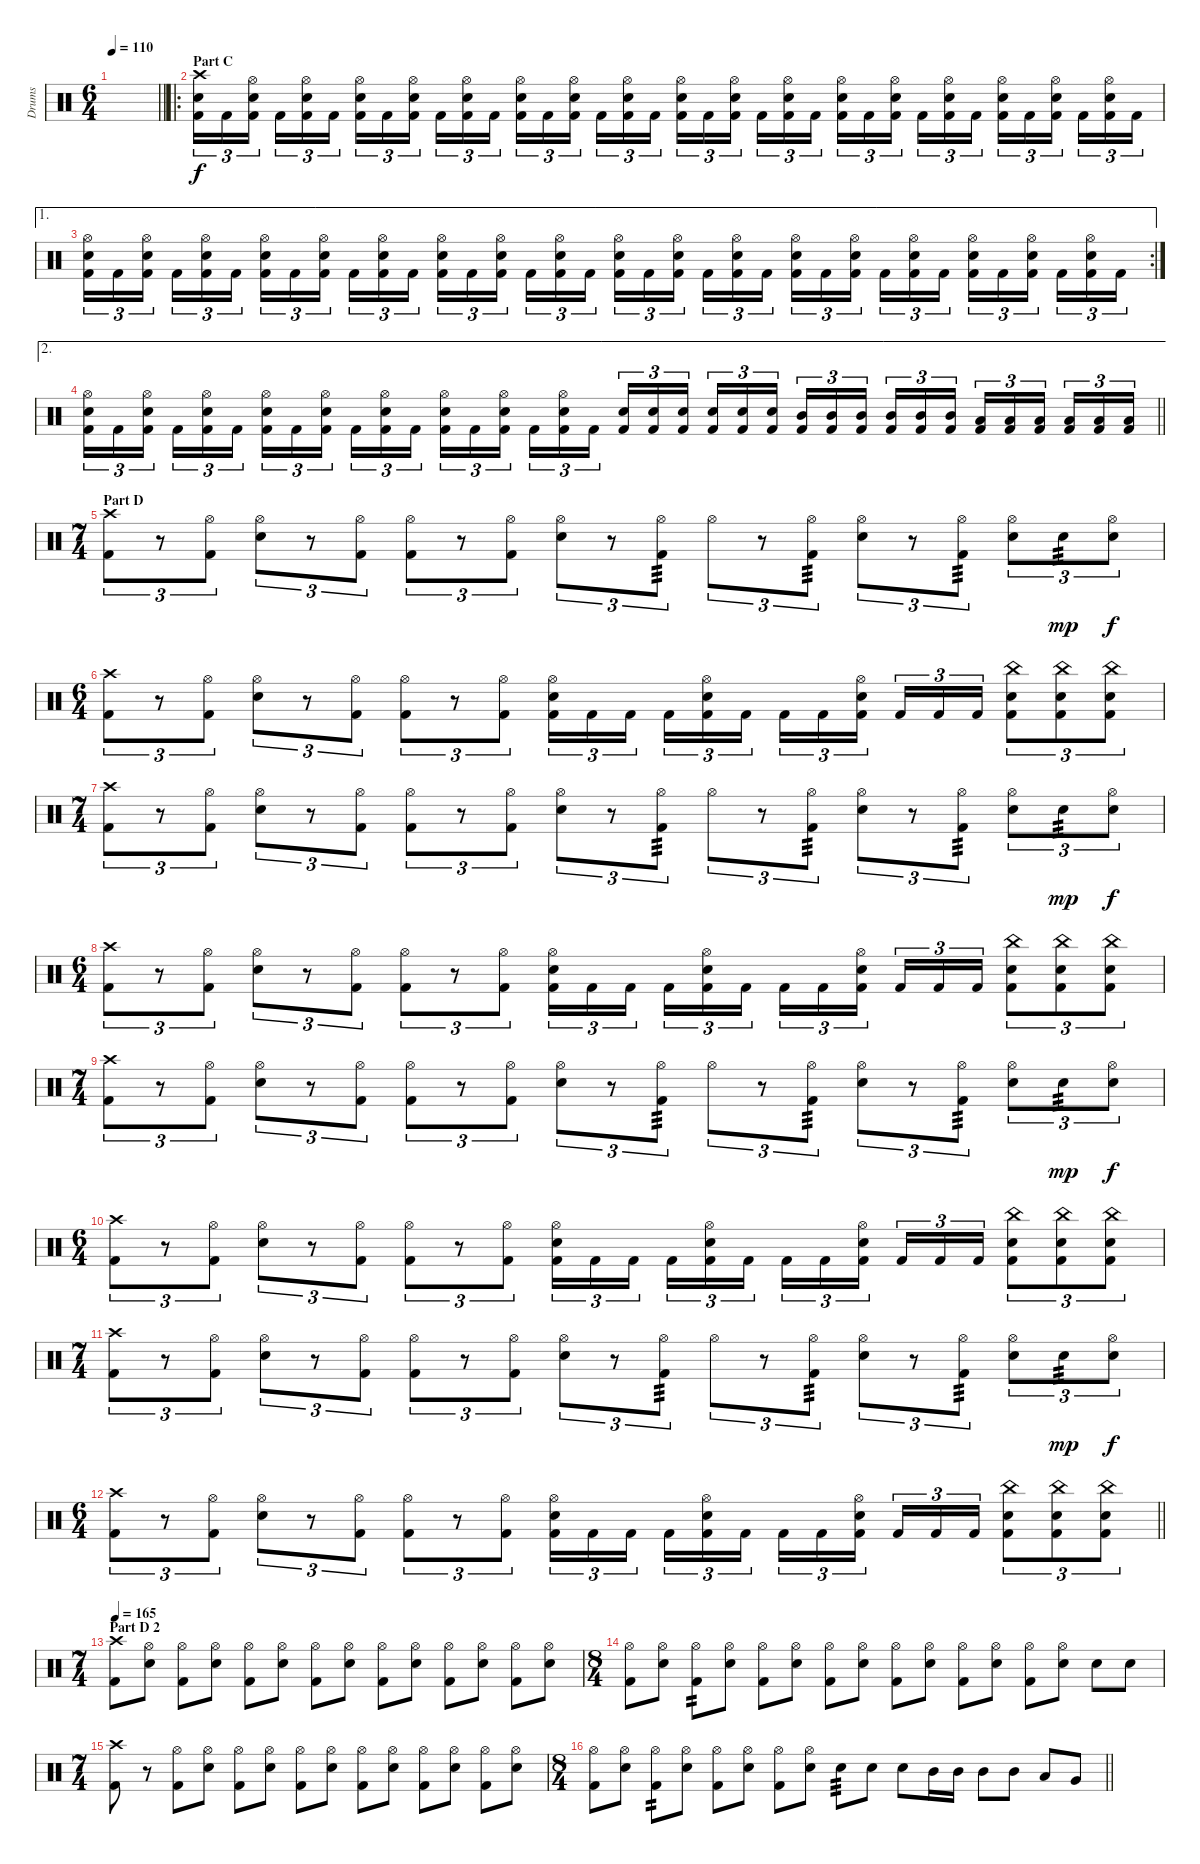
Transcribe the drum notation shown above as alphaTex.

\track ("Drums" "Drums") {instrument percussion}
\staff {score}
\articulation defaults
\ts (6 4)
\tempo 110
\clef neutral
\barLineRight lightlight
\ks c
|
\ro
\section ("" "Part C")
("Snare (hit) 2" "Kick (hit) 2" "Crash high (hit)").16{tu (3 2)} "Kick (hit) 2".16{tu (3 2)} ("Kick (hit) 2" "Snare (hit) 2" "Hi-Hat (open)").16{tu (3 2) beam splitsecondary} "Kick (hit) 2".16{tu (3 2)} ("Kick (hit) 2" "Snare (hit) 2" "Hi-Hat (open)").16{tu (3 2)} "Kick (hit) 2".16{tu (3 2) beam splitsecondary} ("Kick (hit) 2" "Snare (hit) 2" "Hi-Hat (open)").16{tu (3 2)} "Kick (hit) 2".16{tu (3 2)} ("Kick (hit) 2" "Snare (hit) 2" "Hi-Hat (open)").16{tu (3 2) beam splitsecondary} "Kick (hit) 2".16{tu (3 2)} ("Kick (hit) 2" "Snare (hit) 2" "Hi-Hat (open)").16{tu (3 2)} "Kick (hit) 2".16{tu (3 2) beam splitsecondary} ("Snare (hit) 2" "Kick (hit) 2" "Hi-Hat (open)").16{tu (3 2)} "Kick (hit) 2".16{tu (3 2)} ("Kick (hit) 2" "Snare (hit) 2" "Hi-Hat (open)").16{tu (3 2) beam splitsecondary} "Kick (hit) 2".16{tu (3 2)} ("Kick (hit) 2" "Snare (hit) 2" "Hi-Hat (open)").16{tu (3 2)} "Kick (hit) 2".16{tu (3 2)} ("Snare (hit) 2" "Kick (hit) 2" "Hi-Hat (open)").16{tu (3 2)} "Kick (hit) 2".16{tu (3 2)} ("Kick (hit) 2" "Snare (hit) 2" "Hi-Hat (open)").16{tu (3 2) beam splitsecondary} "Kick (hit) 2".16{tu (3 2)} ("Kick (hit) 2" "Snare (hit) 2" "Hi-Hat (open)").16{tu (3 2)} "Kick (hit) 2".16{tu (3 2) beam splitsecondary} ("Kick (hit) 2" "Snare (hit) 2" "Hi-Hat (open)").16{tu (3 2)} "Kick (hit) 2".16{tu (3 2)} ("Kick (hit) 2" "Snare (hit) 2" "Hi-Hat (open)").16{tu (3 2) beam splitsecondary} "Kick (hit) 2".16{tu (3 2)} ("Kick (hit) 2" "Snare (hit) 2" "Hi-Hat (open)").16{tu (3 2)} "Kick (hit) 2".16{tu (3 2) beam splitsecondary} ("Kick (hit) 2" "Snare (hit) 2" "Hi-Hat (open)").16{tu (3 2)} "Kick (hit) 2".16{tu (3 2)} ("Kick (hit) 2" "Snare (hit) 2" "Hi-Hat (open)").16{tu (3 2) beam splitsecondary} "Kick (hit) 2".16{tu (3 2)} ("Kick (hit) 2" "Snare (hit) 2" "Hi-Hat (open)").16{tu (3 2)} "Kick (hit) 2".16{tu (3 2)} |
\ae 1
\rc 2
("Snare (hit) 2" "Kick (hit) 2" "Hi-Hat (open)").16{tu (3 2)} "Kick (hit) 2".16{tu (3 2)} ("Kick (hit) 2" "Snare (hit) 2" "Hi-Hat (open)").16{tu (3 2) beam splitsecondary} "Kick (hit) 2".16{tu (3 2)} ("Kick (hit) 2" "Snare (hit) 2" "Hi-Hat (open)").16{tu (3 2)} "Kick (hit) 2".16{tu (3 2) beam splitsecondary} ("Kick (hit) 2" "Snare (hit) 2" "Hi-Hat (open)").16{tu (3 2)} "Kick (hit) 2".16{tu (3 2)} ("Kick (hit) 2" "Snare (hit) 2" "Hi-Hat (open)").16{tu (3 2) beam splitsecondary} "Kick (hit) 2".16{tu (3 2)} ("Kick (hit) 2" "Snare (hit) 2" "Hi-Hat (open)").16{tu (3 2)} "Kick (hit) 2".16{tu (3 2) beam splitsecondary} ("Snare (hit) 2" "Kick (hit) 2" "Hi-Hat (open)").16{tu (3 2)} "Kick (hit) 2".16{tu (3 2)} ("Kick (hit) 2" "Snare (hit) 2" "Hi-Hat (open)").16{tu (3 2) beam splitsecondary} "Kick (hit) 2".16{tu (3 2)} ("Kick (hit) 2" "Snare (hit) 2" "Hi-Hat (open)").16{tu (3 2)} "Kick (hit) 2".16{tu (3 2)} ("Snare (hit) 2" "Kick (hit) 2" "Hi-Hat (open)").16{tu (3 2)} "Kick (hit) 2".16{tu (3 2)} ("Kick (hit) 2" "Snare (hit) 2" "Hi-Hat (open)").16{tu (3 2) beam splitsecondary} "Kick (hit) 2".16{tu (3 2)} ("Kick (hit) 2" "Snare (hit) 2" "Hi-Hat (open)").16{tu (3 2)} "Kick (hit) 2".16{tu (3 2) beam splitsecondary} ("Kick (hit) 2" "Snare (hit) 2" "Hi-Hat (open)").16{tu (3 2)} "Kick (hit) 2".16{tu (3 2)} ("Kick (hit) 2" "Snare (hit) 2" "Hi-Hat (open)").16{tu (3 2) beam splitsecondary} "Kick (hit) 2".16{tu (3 2)} ("Kick (hit) 2" "Snare (hit) 2" "Hi-Hat (open)").16{tu (3 2)} "Kick (hit) 2".16{tu (3 2) beam splitsecondary} ("Kick (hit) 2" "Snare (hit) 2" "Hi-Hat (open)").16{tu (3 2)} "Kick (hit) 2".16{tu (3 2)} ("Kick (hit) 2" "Snare (hit) 2" "Hi-Hat (open)").16{tu (3 2) beam splitsecondary} "Kick (hit) 2".16{tu (3 2)} ("Kick (hit) 2" "Snare (hit) 2" "Hi-Hat (open)").16{tu (3 2)} "Kick (hit) 2".16{tu (3 2)} |
\ae 2
\barLineRight lightlight
("Snare (hit) 2" "Kick (hit) 2" "Hi-Hat (open)").16{tu (3 2)} "Kick (hit) 2".16{tu (3 2)} ("Kick (hit) 2" "Snare (hit) 2" "Hi-Hat (open)").16{tu (3 2) beam splitsecondary} "Kick (hit) 2".16{tu (3 2)} ("Kick (hit) 2" "Snare (hit) 2" "Hi-Hat (open)").16{tu (3 2)} "Kick (hit) 2".16{tu (3 2) beam splitsecondary} ("Kick (hit) 2" "Snare (hit) 2" "Hi-Hat (open)").16{tu (3 2)} "Kick (hit) 2".16{tu (3 2)} ("Kick (hit) 2" "Snare (hit) 2" "Hi-Hat (open)").16{tu (3 2) beam splitsecondary} "Kick (hit) 2".16{tu (3 2)} ("Kick (hit) 2" "Snare (hit) 2" "Hi-Hat (open)").16{tu (3 2)} "Kick (hit) 2".16{tu (3 2) beam splitsecondary} ("Snare (hit) 2" "Kick (hit) 2" "Hi-Hat (open)").16{tu (3 2)} "Kick (hit) 2".16{tu (3 2)} ("Kick (hit) 2" "Snare (hit) 2" "Hi-Hat (open)").16{tu (3 2) beam splitsecondary} "Kick (hit) 2".16{tu (3 2)} ("Kick (hit) 2" "Snare (hit) 2" "Hi-Hat (open)").16{tu (3 2)} "Kick (hit) 2".16{tu (3 2)} ("Snare (hit) 2" "Kick (hit) 2").16{tu (3 2)} ("Kick (hit) 2" "Snare (hit) 2").16{tu (3 2)} ("Kick (hit) 2" "Snare (hit) 2").16{tu (3 2) beam splitsecondary} ("Kick (hit) 2" "Snare (hit) 2").16{tu (3 2)} ("Kick (hit) 2" "Snare (hit) 2").16{tu (3 2)} ("Kick (hit) 2" "Snare (hit) 2").16{tu (3 2) beam splitsecondary} ("Kick (hit) 2" "Mid Tom (hit)").16{tu (3 2)} ("Kick (hit) 2" "Mid Tom (hit)").16{tu (3 2)} ("Kick (hit) 2" "Mid Tom (hit)").16{tu (3 2) beam splitsecondary} ("Kick (hit) 2" "Mid Tom (hit)").16{tu (3 2)} ("Kick (hit) 2" "Mid Tom (hit)").16{tu (3 2)} ("Kick (hit) 2" "Mid Tom (hit)").16{tu (3 2) beam splitsecondary} ("Kick (hit) 2" "Low Tom (hit)").16{tu (3 2)} ("Kick (hit) 2" "Low Tom (hit)").16{tu (3 2)} ("Kick (hit) 2" "Low Tom (hit)").16{tu (3 2) beam splitsecondary} ("Kick (hit) 2" "Low Tom (hit)").16{tu (3 2)} ("Kick (hit) 2" "Low Tom (hit)").16{tu (3 2)} ("Kick (hit) 2" "Low Tom (hit)").16{tu (3 2)} |
\ts (7 4)
\section ("" "Part D")
("Kick (hit) 2" "Crash high (hit)").8{tu (3 2)} r.8{tu (3 2)} ("Hi-Hat (open)" "Kick (hit) 2").8{tu (3 2)} ("Hi-Hat (open)" "Snare (hit) 2").8{tu (3 2)} r.8{tu (3 2)} ("Hi-Hat (open)" "Kick (hit) 2").8{tu (3 2)} ("Hi-Hat (open)" "Kick (hit) 2").8{tu (3 2)} r.8{tu (3 2)} ("Hi-Hat (open)" "Kick (hit) 2").8{tu (3 2)} ("Hi-Hat (open)" "Snare (hit) 2").8{tu (3 2)} r.8{tu (3 2)} ("Kick (hit) 2" "Hi-Hat (open)").8{tu (3 2) tp 3} "Hi-Hat (open)".8{tu (3 2)} r.8{tu (3 2)} ("Kick (hit) 2" "Hi-Hat (open)").8{tu (3 2) tp 3} ("Hi-Hat (open)" "Snare (hit) 2").8{tu (3 2)} r.8{tu (3 2)} ("Kick (hit) 2" "Hi-Hat (open)").8{tu (3 2) tp 3} ("Snare (hit) 2" "Hi-Hat (open)").8{tu (3 2)} "Snare (hit) 2".8{tu (3 2) tp 3 dy mp} ("Snare (hit) 2" "Hi-Hat (open)").8{tu (3 2) dy f} |
\ts (6 4)
("Kick (hit) 2" "Crash high (hit)").8{tu (3 2)} r.8{tu (3 2)} ("Hi-Hat (open)" "Kick (hit) 2").8{tu (3 2)} ("Hi-Hat (open)" "Snare (hit) 2").8{tu (3 2)} r.8{tu (3 2)} ("Hi-Hat (open)" "Kick (hit) 2").8{tu (3 2)} ("Hi-Hat (open)" "Kick (hit) 2").8{tu (3 2)} r.8{tu (3 2)} ("Hi-Hat (open)" "Kick (hit) 2").8{tu (3 2)} ("Hi-Hat (open)" "Snare (hit) 2" "Kick (hit) 2").16{tu (3 2)} "Kick (hit) 2".16{tu (3 2)} "Kick (hit) 2".16{tu (3 2) beam splitsecondary} "Kick (hit) 2".16{tu (3 2)} ("Kick (hit) 2" "Snare (hit) 2" "Hi-Hat (open)").16{tu (3 2)} "Kick (hit) 2".16{tu (3 2) beam splitsecondary} "Kick (hit) 2".16{tu (3 2)} "Kick (hit) 2".16{tu (3 2)} ("Kick (hit) 2" "Snare (hit) 2" "Hi-Hat (open)").16{tu (3 2) beam splitsecondary} "Kick (hit) 2".16{tu (3 2)} "Kick (hit) 2".16{tu (3 2)} "Kick (hit) 2".16{tu (3 2)} ("Kick (hit) 2" "Snare (hit) 2" "China (hit)").8{tu (3 2)} ("Kick (hit) 2" "Snare (hit) 2" "China (hit)").8{tu (3 2)} ("Snare (hit) 2" "Kick (hit) 2" "China (hit)").8{tu (3 2)} |
\ts (7 4)
("Kick (hit) 2" "Crash high (hit)").8{tu (3 2)} r.8{tu (3 2)} ("Hi-Hat (open)" "Kick (hit) 2").8{tu (3 2)} ("Hi-Hat (open)" "Snare (hit) 2").8{tu (3 2)} r.8{tu (3 2)} ("Hi-Hat (open)" "Kick (hit) 2").8{tu (3 2)} ("Hi-Hat (open)" "Kick (hit) 2").8{tu (3 2)} r.8{tu (3 2)} ("Hi-Hat (open)" "Kick (hit) 2").8{tu (3 2)} ("Hi-Hat (open)" "Snare (hit) 2").8{tu (3 2)} r.8{tu (3 2)} ("Kick (hit) 2" "Hi-Hat (open)").8{tu (3 2) tp 3} "Hi-Hat (open)".8{tu (3 2)} r.8{tu (3 2)} ("Kick (hit) 2" "Hi-Hat (open)").8{tu (3 2) tp 3} ("Hi-Hat (open)" "Snare (hit) 2").8{tu (3 2)} r.8{tu (3 2)} ("Kick (hit) 2" "Hi-Hat (open)").8{tu (3 2) tp 3} ("Snare (hit) 2" "Hi-Hat (open)").8{tu (3 2)} "Snare (hit) 2".8{tu (3 2) tp 3 dy mp} ("Snare (hit) 2" "Hi-Hat (open)").8{tu (3 2) dy f} |
\ts (6 4)
("Kick (hit) 2" "Crash high (hit)").8{tu (3 2)} r.8{tu (3 2)} ("Hi-Hat (open)" "Kick (hit) 2").8{tu (3 2)} ("Hi-Hat (open)" "Snare (hit) 2").8{tu (3 2)} r.8{tu (3 2)} ("Hi-Hat (open)" "Kick (hit) 2").8{tu (3 2)} ("Hi-Hat (open)" "Kick (hit) 2").8{tu (3 2)} r.8{tu (3 2)} ("Hi-Hat (open)" "Kick (hit) 2").8{tu (3 2)} ("Hi-Hat (open)" "Snare (hit) 2" "Kick (hit) 2").16{tu (3 2)} "Kick (hit) 2".16{tu (3 2)} "Kick (hit) 2".16{tu (3 2) beam splitsecondary} "Kick (hit) 2".16{tu (3 2)} ("Kick (hit) 2" "Snare (hit) 2" "Hi-Hat (open)").16{tu (3 2)} "Kick (hit) 2".16{tu (3 2) beam splitsecondary} "Kick (hit) 2".16{tu (3 2)} "Kick (hit) 2".16{tu (3 2)} ("Kick (hit) 2" "Snare (hit) 2" "Hi-Hat (open)").16{tu (3 2) beam splitsecondary} "Kick (hit) 2".16{tu (3 2)} "Kick (hit) 2".16{tu (3 2)} "Kick (hit) 2".16{tu (3 2)} ("Kick (hit) 2" "Snare (hit) 2" "China (hit)").8{tu (3 2)} ("Kick (hit) 2" "Snare (hit) 2" "China (hit)").8{tu (3 2)} ("Snare (hit) 2" "Kick (hit) 2" "China (hit)").8{tu (3 2)} |
\ts (7 4)
("Kick (hit) 2" "Crash high (hit)").8{tu (3 2)} r.8{tu (3 2)} ("Hi-Hat (open)" "Kick (hit) 2").8{tu (3 2)} ("Hi-Hat (open)" "Snare (hit) 2").8{tu (3 2)} r.8{tu (3 2)} ("Hi-Hat (open)" "Kick (hit) 2").8{tu (3 2)} ("Hi-Hat (open)" "Kick (hit) 2").8{tu (3 2)} r.8{tu (3 2)} ("Hi-Hat (open)" "Kick (hit) 2").8{tu (3 2)} ("Hi-Hat (open)" "Snare (hit) 2").8{tu (3 2)} r.8{tu (3 2)} ("Kick (hit) 2" "Hi-Hat (open)").8{tu (3 2) tp 3} "Hi-Hat (open)".8{tu (3 2)} r.8{tu (3 2)} ("Kick (hit) 2" "Hi-Hat (open)").8{tu (3 2) tp 3} ("Hi-Hat (open)" "Snare (hit) 2").8{tu (3 2)} r.8{tu (3 2)} ("Kick (hit) 2" "Hi-Hat (open)").8{tu (3 2) tp 3} ("Snare (hit) 2" "Hi-Hat (open)").8{tu (3 2)} "Snare (hit) 2".8{tu (3 2) tp 3 dy mp} ("Snare (hit) 2" "Hi-Hat (open)").8{tu (3 2) dy f} |
\ts (6 4)
("Kick (hit) 2" "Crash high (hit)").8{tu (3 2)} r.8{tu (3 2)} ("Hi-Hat (open)" "Kick (hit) 2").8{tu (3 2)} ("Hi-Hat (open)" "Snare (hit) 2").8{tu (3 2)} r.8{tu (3 2)} ("Hi-Hat (open)" "Kick (hit) 2").8{tu (3 2)} ("Hi-Hat (open)" "Kick (hit) 2").8{tu (3 2)} r.8{tu (3 2)} ("Hi-Hat (open)" "Kick (hit) 2").8{tu (3 2)} ("Hi-Hat (open)" "Snare (hit) 2" "Kick (hit) 2").16{tu (3 2)} "Kick (hit) 2".16{tu (3 2)} "Kick (hit) 2".16{tu (3 2) beam splitsecondary} "Kick (hit) 2".16{tu (3 2)} ("Kick (hit) 2" "Snare (hit) 2" "Hi-Hat (open)").16{tu (3 2)} "Kick (hit) 2".16{tu (3 2) beam splitsecondary} "Kick (hit) 2".16{tu (3 2)} "Kick (hit) 2".16{tu (3 2)} ("Kick (hit) 2" "Snare (hit) 2" "Hi-Hat (open)").16{tu (3 2) beam splitsecondary} "Kick (hit) 2".16{tu (3 2)} "Kick (hit) 2".16{tu (3 2)} "Kick (hit) 2".16{tu (3 2)} ("Kick (hit) 2" "Snare (hit) 2" "China (hit)").8{tu (3 2)} ("Kick (hit) 2" "Snare (hit) 2" "China (hit)").8{tu (3 2)} ("Snare (hit) 2" "Kick (hit) 2" "China (hit)").8{tu (3 2)} |
\ts (7 4)
("Kick (hit) 2" "Crash high (hit)").8{tu (3 2)} r.8{tu (3 2)} ("Hi-Hat (open)" "Kick (hit) 2").8{tu (3 2)} ("Hi-Hat (open)" "Snare (hit) 2").8{tu (3 2)} r.8{tu (3 2)} ("Hi-Hat (open)" "Kick (hit) 2").8{tu (3 2)} ("Hi-Hat (open)" "Kick (hit) 2").8{tu (3 2)} r.8{tu (3 2)} ("Hi-Hat (open)" "Kick (hit) 2").8{tu (3 2)} ("Hi-Hat (open)" "Snare (hit) 2").8{tu (3 2)} r.8{tu (3 2)} ("Kick (hit) 2" "Hi-Hat (open)").8{tu (3 2) tp 3} "Hi-Hat (open)".8{tu (3 2)} r.8{tu (3 2)} ("Kick (hit) 2" "Hi-Hat (open)").8{tu (3 2) tp 3} ("Hi-Hat (open)" "Snare (hit) 2").8{tu (3 2)} r.8{tu (3 2)} ("Kick (hit) 2" "Hi-Hat (open)").8{tu (3 2) tp 3} ("Snare (hit) 2" "Hi-Hat (open)").8{tu (3 2)} "Snare (hit) 2".8{tu (3 2) tp 3 dy mp} ("Snare (hit) 2" "Hi-Hat (open)").8{tu (3 2) dy f} |
\ts (6 4)
\barLineRight lightlight
("Kick (hit) 2" "Crash high (hit)").8{tu (3 2)} r.8{tu (3 2)} ("Hi-Hat (open)" "Kick (hit) 2").8{tu (3 2)} ("Hi-Hat (open)" "Snare (hit) 2").8{tu (3 2)} r.8{tu (3 2)} ("Hi-Hat (open)" "Kick (hit) 2").8{tu (3 2)} ("Hi-Hat (open)" "Kick (hit) 2").8{tu (3 2)} r.8{tu (3 2)} ("Hi-Hat (open)" "Kick (hit) 2").8{tu (3 2)} ("Hi-Hat (open)" "Snare (hit) 2" "Kick (hit) 2").16{tu (3 2)} "Kick (hit) 2".16{tu (3 2)} "Kick (hit) 2".16{tu (3 2) beam splitsecondary} "Kick (hit) 2".16{tu (3 2)} ("Kick (hit) 2" "Snare (hit) 2" "Hi-Hat (open)").16{tu (3 2)} "Kick (hit) 2".16{tu (3 2) beam splitsecondary} "Kick (hit) 2".16{tu (3 2)} "Kick (hit) 2".16{tu (3 2)} ("Kick (hit) 2" "Snare (hit) 2" "Hi-Hat (open)").16{tu (3 2) beam splitsecondary} "Kick (hit) 2".16{tu (3 2)} "Kick (hit) 2".16{tu (3 2)} "Kick (hit) 2".16{tu (3 2)} ("Kick (hit) 2" "Snare (hit) 2" "China (hit)").8{tu (3 2)} ("Kick (hit) 2" "Snare (hit) 2" "China (hit)").8{tu (3 2)} ("Snare (hit) 2" "Kick (hit) 2" "China (hit)").8{tu (3 2)} |
\ts (7 4)
\section ("" "Part D 2")
\tempo 165
("Crash high (hit)" "Kick (hit) 2").8 ("Snare (hit) 2" "Hi-Hat (open)").8 ("Kick (hit) 2" "Hi-Hat (open)").8 ("Snare (hit) 2" "Hi-Hat (open)").8 ("Kick (hit) 2" "Hi-Hat (open)").8 ("Snare (hit) 2" "Hi-Hat (open)").8 ("Kick (hit) 2" "Hi-Hat (open)").8 ("Snare (hit) 2" "Hi-Hat (open)").8 ("Kick (hit) 2" "Hi-Hat (open)").8 ("Snare (hit) 2" "Hi-Hat (open)").8 ("Kick (hit) 2" "Hi-Hat (open)").8 ("Snare (hit) 2" "Hi-Hat (open)").8 ("Kick (hit) 2" "Hi-Hat (open)").8 ("Snare (hit) 2" "Hi-Hat (open)").8 |
\ts (8 4)
("Kick (hit) 2" "Hi-Hat (open)").8 ("Snare (hit) 2" "Hi-Hat (open)").8 ("Kick (hit) 2" "Hi-Hat (open)").8{tp 2} ("Snare (hit) 2" "Hi-Hat (open)").8 ("Kick (hit) 2" "Hi-Hat (open)").8 ("Snare (hit) 2" "Hi-Hat (open)").8 ("Kick (hit) 2" "Hi-Hat (open)").8 ("Snare (hit) 2" "Hi-Hat (open)").8 ("Kick (hit) 2" "Hi-Hat (open)").8 ("Snare (hit) 2" "Hi-Hat (open)").8 ("Kick (hit) 2" "Hi-Hat (open)").8 ("Snare (hit) 2" "Hi-Hat (open)").8 ("Kick (hit) 2" "Hi-Hat (open)").8 ("Snare (hit) 2" "Hi-Hat (open)").8 "Snare (hit) 2".8 "Snare (hit) 2".8 |
\ts (7 4)
("Crash high (hit)" "Kick (hit) 2").8 r.8 ("Kick (hit) 2" "Hi-Hat (open)").8 ("Snare (hit) 2" "Hi-Hat (open)").8 ("Kick (hit) 2" "Hi-Hat (open)").8 ("Snare (hit) 2" "Hi-Hat (open)").8 ("Kick (hit) 2" "Hi-Hat (open)").8 ("Snare (hit) 2" "Hi-Hat (open)").8 ("Kick (hit) 2" "Hi-Hat (open)").8 ("Snare (hit) 2" "Hi-Hat (open)").8 ("Kick (hit) 2" "Hi-Hat (open)").8 ("Snare (hit) 2" "Hi-Hat (open)").8 ("Kick (hit) 2" "Hi-Hat (open)").8 ("Snare (hit) 2" "Hi-Hat (open)").8 |
\ts (8 4)
\barLineRight lightlight
("Kick (hit) 2" "Hi-Hat (open)").8 ("Snare (hit) 2" "Hi-Hat (open)").8 ("Kick (hit) 2" "Hi-Hat (open)").8{tp 2} ("Snare (hit) 2" "Hi-Hat (open)").8 ("Kick (hit) 2" "Hi-Hat (open)").8 ("Snare (hit) 2" "Hi-Hat (open)").8 ("Kick (hit) 2" "Hi-Hat (open)").8 ("Snare (hit) 2" "Hi-Hat (open)").8 "Snare (hit) 2".8{tp 3} "Snare (hit) 2".8 "Snare (hit) 2".8 "Mid Tom (hit)".16 "Mid Tom (hit)".16 "Mid Tom (hit)".8 "Mid Tom (hit)".8 "Low Tom (hit)".8 "Very Low Tom (hit)".8
